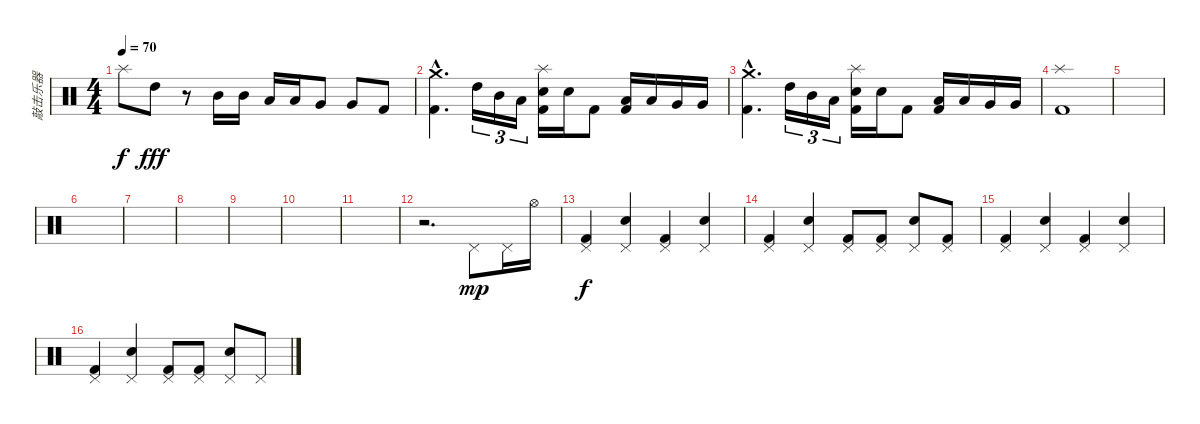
\track ("敲击乐器" "敲击乐器") {instrument percussion}
\staff {score}
\articulation defaults
\ts (4 4)
\tempo 70
\clef neutral
\ks c "Splash (hit)".8{dy f} "High Tom (hit)".8{dy fff}
r.8 "Mid Tom (hit)".16 "Mid Tom (hit)".16 "Low Tom (hit)".16 "Low Tom (hit)".16 "Very Low Tom (hit)".8 "Very Low Tom (hit)".8 "Kick (hit) 2".8 |
("Crash medium (hit)"{hac} "Kick (hit) 2"{hac}).4{d} "High Tom (hit)".16{tu (3 2)} "Mid Tom (hit)".16{tu (3 2)} "Low Tom (hit)".16{tu (3 2)} ("Splash (hit)" "Snare (hit) 2" "Kick (hit) 2").16 "Snare (hit) 2".16 "Kick (hit) 2".8 ("Low Tom (hit)" "Kick (hit) 2").16 "Low Tom (hit)".16 "Very Low Tom (hit)".16 "Very Low Tom (hit)".16 |
("Crash medium (hit)"{hac} "Kick (hit) 2"{hac}).4{d} "High Tom (hit)".16{tu (3 2)} "Mid Tom (hit)".16{tu (3 2)} "Low Tom (hit)".16{tu (3 2)} ("Splash (hit)" "Snare (hit) 2" "Kick (hit) 2").16 "Snare (hit) 2".16 "Kick (hit) 2".8 ("Low Tom (hit)" "Kick (hit) 2").16 "Low Tom (hit)".16 "Very Low Tom (hit)".16 "Very Low Tom (hit)".16 |
("Splash (hit)" "Kick (hit) 2").1 |
|
|
|
|
|
|
|
r.2{d} "Pedal Hi-Hat (hit)".8{dy mp} "Pedal Hi-Hat (hit)".16 "Hi-Hat (open)".16 |
("Pedal Hi-Hat (hit)" "Kick (hit) 2").4{dy f} ("Pedal Hi-Hat (hit)" "Electric Snare (hit)").4 ("Pedal Hi-Hat (hit)" "Kick (hit) 2").4 ("Pedal Hi-Hat (hit)" "Electric Snare (hit)").4 |
("Pedal Hi-Hat (hit)" "Kick (hit) 2").4 ("Pedal Hi-Hat (hit)" "Electric Snare (hit)").4 ("Pedal Hi-Hat (hit)" "Kick (hit) 2").8 ("Pedal Hi-Hat (hit)" "Kick (hit) 2").8 ("Pedal Hi-Hat (hit)" "Electric Snare (hit)").8 ("Pedal Hi-Hat (hit)" "Kick (hit) 2").8 |
("Pedal Hi-Hat (hit)" "Kick (hit) 2").4 ("Pedal Hi-Hat (hit)" "Electric Snare (hit)").4 ("Pedal Hi-Hat (hit)" "Kick (hit) 2").4 ("Pedal Hi-Hat (hit)" "Electric Snare (hit)").4 |
("Pedal Hi-Hat (hit)" "Kick (hit) 2").4 ("Pedal Hi-Hat (hit)" "Electric Snare (hit)").4 ("Pedal Hi-Hat (hit)" "Kick (hit) 2").8 ("Pedal Hi-Hat (hit)" "Kick (hit) 2").8 ("Pedal Hi-Hat (hit)" "Electric Snare (hit)").8 "Pedal Hi-Hat (hit)".8
